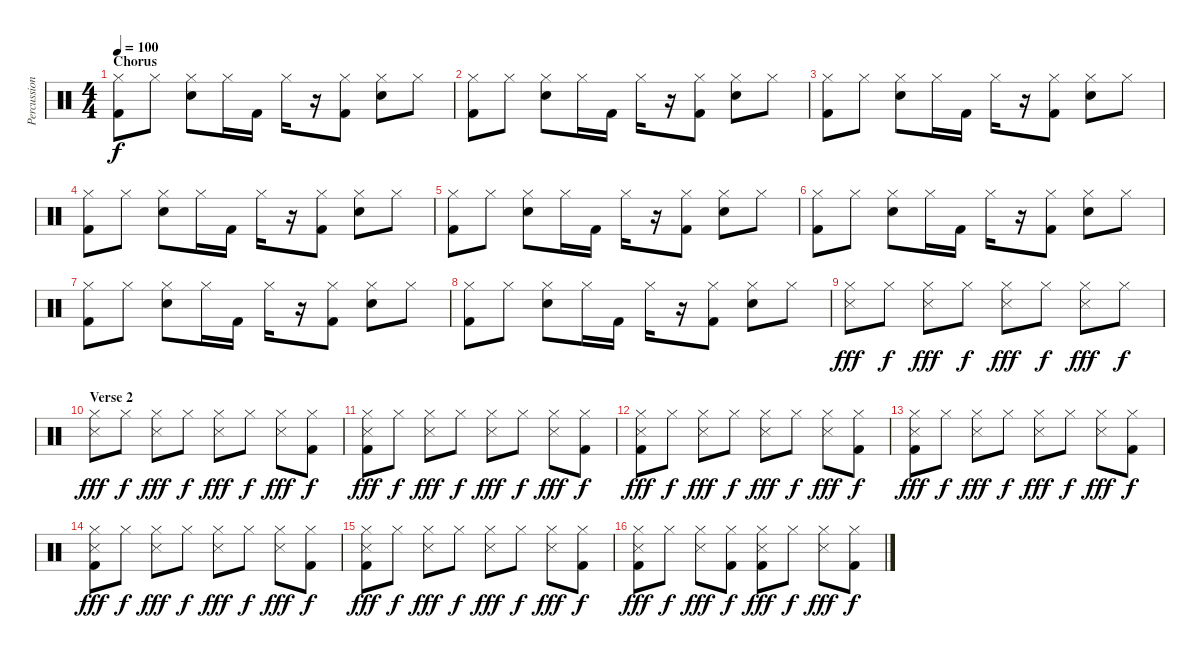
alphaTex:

\track ("Percussion" "Percussion") {instrument percussion}
\staff {score}
\articulation defaults
\ts (4 4)
\section ("" "Chorus")
\tempo 100
\clef neutral
\ks c
("Hi-Hat (closed)" "Kick (hit) 2").8{dy f} "Hi-Hat (closed)".8 ("Hi-Hat (closed)" "Electric Snare (hit)").8 "Hi-Hat (closed)".16 "Kick (hit) 2".16 "Hi-Hat (closed)".16 r.16 ("Hi-Hat (closed)" "Kick (hit) 2").8 ("Hi-Hat (closed)" "Electric Snare (hit)").8 "Hi-Hat (closed)".8 |
("Hi-Hat (closed)" "Kick (hit) 2").8 "Hi-Hat (closed)".8 ("Hi-Hat (closed)" "Electric Snare (hit)").8 "Hi-Hat (closed)".16 "Kick (hit) 2".16 "Hi-Hat (closed)".16 r.16 ("Hi-Hat (closed)" "Kick (hit) 2").8 ("Hi-Hat (closed)" "Electric Snare (hit)").8 "Hi-Hat (closed)".8 |
("Hi-Hat (closed)" "Kick (hit) 2").8 "Hi-Hat (closed)".8 ("Hi-Hat (closed)" "Electric Snare (hit)").8 "Hi-Hat (closed)".16 "Kick (hit) 2".16 "Hi-Hat (closed)".16 r.16 ("Hi-Hat (closed)" "Kick (hit) 2").8 ("Hi-Hat (closed)" "Electric Snare (hit)").8 "Hi-Hat (closed)".8 |
("Hi-Hat (closed)" "Kick (hit) 2").8 "Hi-Hat (closed)".8 ("Hi-Hat (closed)" "Electric Snare (hit)").8 "Hi-Hat (closed)".16 "Kick (hit) 2".16 "Hi-Hat (closed)".16 r.16 ("Hi-Hat (closed)" "Kick (hit) 2").8 ("Hi-Hat (closed)" "Electric Snare (hit)").8 "Hi-Hat (closed)".8 |
("Hi-Hat (closed)" "Kick (hit) 2").8 "Hi-Hat (closed)".8 ("Hi-Hat (closed)" "Electric Snare (hit)").8 "Hi-Hat (closed)".16 "Kick (hit) 2".16 "Hi-Hat (closed)".16 r.16 ("Hi-Hat (closed)" "Kick (hit) 2").8 ("Hi-Hat (closed)" "Electric Snare (hit)").8 "Hi-Hat (closed)".8 |
("Hi-Hat (closed)" "Kick (hit) 2").8 "Hi-Hat (closed)".8 ("Hi-Hat (closed)" "Electric Snare (hit)").8 "Hi-Hat (closed)".16 "Kick (hit) 2".16 "Hi-Hat (closed)".16 r.16 ("Hi-Hat (closed)" "Kick (hit) 2").8 ("Hi-Hat (closed)" "Electric Snare (hit)").8 "Hi-Hat (closed)".8 |
("Hi-Hat (closed)" "Kick (hit) 2").8 "Hi-Hat (closed)".8 ("Hi-Hat (closed)" "Electric Snare (hit)").8 "Hi-Hat (closed)".16 "Kick (hit) 2".16 "Hi-Hat (closed)".16 r.16 ("Hi-Hat (closed)" "Kick (hit) 2").8 ("Hi-Hat (closed)" "Electric Snare (hit)").8 "Hi-Hat (closed)".8 |
("Hi-Hat (closed)" "Kick (hit) 2").8 "Hi-Hat (closed)".8 ("Hi-Hat (closed)" "Electric Snare (hit)").8 "Hi-Hat (closed)".16 "Kick (hit) 2".16 "Hi-Hat (closed)".16 r.16 ("Hi-Hat (closed)" "Kick (hit) 2").8 ("Hi-Hat (closed)" "Electric Snare (hit)").8 "Hi-Hat (closed)".8 |
("Hi-Hat (closed)" "Snare (side stick) 3").8{dy fff} "Hi-Hat (closed)".8{dy f} ("Hi-Hat (closed)" "Snare (side stick) 3").8{dy fff} "Hi-Hat (closed)".8{dy f} ("Snare (side stick) 3" "Hi-Hat (closed)").8{dy fff} "Hi-Hat (closed)".8{dy f} ("Hi-Hat (closed)" "Snare (side stick) 3").8{dy fff} "Hi-Hat (closed)".8{dy f} |
\section ("" "Verse 2")
("Hi-Hat (closed)" "Snare (side stick) 3").8{dy fff} "Hi-Hat (closed)".8{dy f} ("Hi-Hat (closed)" "Snare (side stick) 3").8{dy fff} "Hi-Hat (closed)".8{dy f} ("Snare (side stick) 3" "Hi-Hat (closed)").8{dy fff} "Hi-Hat (closed)".8{dy f} ("Hi-Hat (closed)" "Snare (side stick) 3").8{dy fff} ("Hi-Hat (closed)" "Kick (hit) 2").8{dy f} |
("Hi-Hat (closed)" "Snare (side stick) 3" "Kick (hit) 2").8{dy fff} "Hi-Hat (closed)".8{dy f} ("Hi-Hat (closed)" "Snare (side stick) 3").8{dy fff} "Hi-Hat (closed)".8{dy f} ("Snare (side stick) 3" "Hi-Hat (closed)").8{dy fff} "Hi-Hat (closed)".8{dy f} ("Hi-Hat (closed)" "Snare (side stick) 3").8{dy fff} ("Hi-Hat (closed)" "Kick (hit) 2").8{dy f} |
("Hi-Hat (closed)" "Snare (side stick) 3" "Kick (hit) 2").8{dy fff} "Hi-Hat (closed)".8{dy f} ("Hi-Hat (closed)" "Snare (side stick) 3").8{dy fff} "Hi-Hat (closed)".8{dy f} ("Snare (side stick) 3" "Hi-Hat (closed)").8{dy fff} "Hi-Hat (closed)".8{dy f} ("Hi-Hat (closed)" "Snare (side stick) 3").8{dy fff} ("Hi-Hat (closed)" "Kick (hit) 2").8{dy f} |
("Hi-Hat (closed)" "Snare (side stick) 3" "Kick (hit) 2").8{dy fff} "Hi-Hat (closed)".8{dy f} ("Hi-Hat (closed)" "Snare (side stick) 3").8{dy fff} "Hi-Hat (closed)".8{dy f} ("Snare (side stick) 3" "Hi-Hat (closed)").8{dy fff} "Hi-Hat (closed)".8{dy f} ("Hi-Hat (closed)" "Snare (side stick) 3").8{dy fff} ("Hi-Hat (closed)" "Kick (hit) 2").8{dy f} |
("Hi-Hat (closed)" "Snare (side stick) 3" "Kick (hit) 2").8{dy fff} "Hi-Hat (closed)".8{dy f} ("Hi-Hat (closed)" "Snare (side stick) 3").8{dy fff} "Hi-Hat (closed)".8{dy f} ("Snare (side stick) 3" "Hi-Hat (closed)").8{dy fff} "Hi-Hat (closed)".8{dy f} ("Hi-Hat (closed)" "Snare (side stick) 3").8{dy fff} ("Hi-Hat (closed)" "Kick (hit) 2").8{dy f} |
("Hi-Hat (closed)" "Snare (side stick) 3" "Kick (hit) 2").8{dy fff} "Hi-Hat (closed)".8{dy f} ("Hi-Hat (closed)" "Snare (side stick) 3").8{dy fff} "Hi-Hat (closed)".8{dy f} ("Snare (side stick) 3" "Hi-Hat (closed)").8{dy fff} "Hi-Hat (closed)".8{dy f} ("Hi-Hat (closed)" "Snare (side stick) 3").8{dy fff} ("Hi-Hat (closed)" "Kick (hit) 2").8{dy f} |
("Hi-Hat (closed)" "Snare (side stick) 3" "Kick (hit) 2").8{dy fff} "Hi-Hat (closed)".8{dy f} ("Hi-Hat (closed)" "Snare (side stick) 3").8{dy fff} ("Hi-Hat (closed)" "Kick (hit) 2").8{dy f} ("Snare (side stick) 3" "Hi-Hat (closed)" "Kick (hit) 2").8{dy fff} "Hi-Hat (closed)".8{dy f} ("Hi-Hat (closed)" "Snare (side stick) 3").8{dy fff} ("Hi-Hat (closed)" "Kick (hit) 2").8{dy f}
